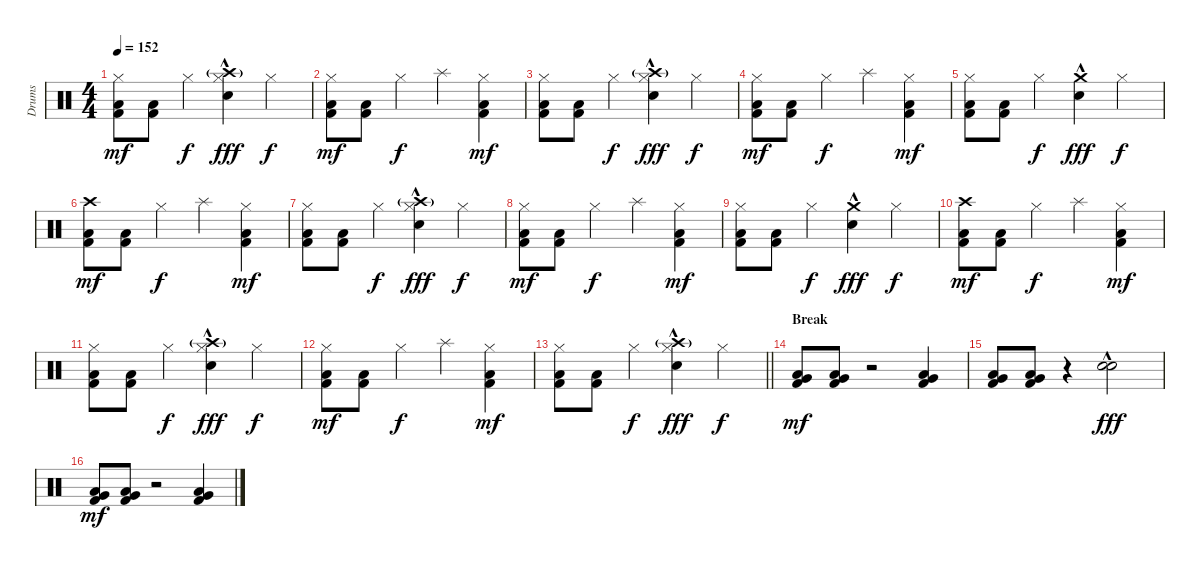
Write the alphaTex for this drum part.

\track ("Drums" "Drums") {instrument percussion}
\staff {score}
\articulation defaults
\ts (4 4)
\tempo 152
\clef neutral
\ks c
("Hi-Hat (closed)" "Low Floor Tom (hit)" "Kick (hit) 2").8{dy mf} ("Low Floor Tom (hit)" "Kick (hit) 2").8 "Hi-Hat (closed)".4{dy f} ("Crash high (hit)"{g} "Hi-Hat (closed)" "Snare (hit) 2"{hac}).4{dy fff} "Hi-Hat (closed)".4{dy f} |
("Hi-Hat (closed)" "Low Floor Tom (hit)" "Kick (hit) 2").8{dy mf} ("Low Floor Tom (hit)" "Kick (hit) 2").8 "Hi-Hat (closed)".4{dy f} "Splash (hit)".4 ("Hi-Hat (closed)" "Low Floor Tom (hit)" "Kick (hit) 2").4{dy mf} |
("Hi-Hat (closed)" "Low Floor Tom (hit)" "Kick (hit) 2").8 ("Low Floor Tom (hit)" "Kick (hit) 2").8 "Hi-Hat (closed)".4{dy f} ("Crash high (hit)"{g} "Hi-Hat (closed)" "Snare (hit) 2"{hac}).4{dy fff} "Hi-Hat (closed)".4{dy f} |
("Hi-Hat (closed)" "Low Floor Tom (hit)" "Kick (hit) 2").8{dy mf} ("Low Floor Tom (hit)" "Kick (hit) 2").8 "Hi-Hat (closed)".4{dy f} "Splash (hit)".4 ("Hi-Hat (closed)" "Low Floor Tom (hit)" "Kick (hit) 2").4{dy mf} |
("Hi-Hat (closed)" "Low Floor Tom (hit)" "Kick (hit) 2").8 ("Low Floor Tom (hit)" "Kick (hit) 2").8 "Hi-Hat (closed)".4{dy f} ("Crash medium (hit)" "Snare (hit) 2"{hac}).4{dy fff} "Hi-Hat (closed)".4{dy f} |
("Crash high (hit)" "Low Floor Tom (hit)" "Kick (hit) 2").8{dy mf} ("Low Floor Tom (hit)" "Kick (hit) 2").8 "Hi-Hat (closed)".4{dy f} "Splash (hit)".4 ("Hi-Hat (closed)" "Low Floor Tom (hit)" "Kick (hit) 2").4{dy mf} |
("Hi-Hat (closed)" "Low Floor Tom (hit)" "Kick (hit) 2").8 ("Low Floor Tom (hit)" "Kick (hit) 2").8 "Hi-Hat (closed)".4{dy f} ("Crash high (hit)"{g} "Hi-Hat (closed)" "Snare (hit) 2"{hac}).4{dy fff} "Hi-Hat (closed)".4{dy f} |
("Hi-Hat (closed)" "Low Floor Tom (hit)" "Kick (hit) 2").8{dy mf} ("Low Floor Tom (hit)" "Kick (hit) 2").8 "Hi-Hat (closed)".4{dy f} "Splash (hit)".4 ("Hi-Hat (closed)" "Low Floor Tom (hit)" "Kick (hit) 2").4{dy mf} |
("Hi-Hat (closed)" "Low Floor Tom (hit)" "Kick (hit) 2").8 ("Low Floor Tom (hit)" "Kick (hit) 2").8 "Hi-Hat (closed)".4{dy f} ("Crash medium (hit)" "Snare (hit) 2"{hac}).4{dy fff} "Hi-Hat (closed)".4{dy f} |
("Crash high (hit)" "Low Floor Tom (hit)" "Kick (hit) 2").8{dy mf} ("Low Floor Tom (hit)" "Kick (hit) 2").8 "Hi-Hat (closed)".4{dy f} "Splash (hit)".4 ("Hi-Hat (closed)" "Low Floor Tom (hit)" "Kick (hit) 2").4{dy mf} |
("Hi-Hat (closed)" "Low Floor Tom (hit)" "Kick (hit) 2").8 ("Low Floor Tom (hit)" "Kick (hit) 2").8 "Hi-Hat (closed)".4{dy f} ("Crash high (hit)"{g} "Hi-Hat (closed)" "Snare (hit) 2"{hac}).4{dy fff} "Hi-Hat (closed)".4{dy f} |
("Hi-Hat (closed)" "Low Floor Tom (hit)" "Kick (hit) 2").8{dy mf} ("Low Floor Tom (hit)" "Kick (hit) 2").8 "Hi-Hat (closed)".4{dy f} "Splash (hit)".4 ("Hi-Hat (closed)" "Low Floor Tom (hit)" "Kick (hit) 2").4{dy mf} |
\barLineRight lightlight
("Hi-Hat (closed)" "Low Floor Tom (hit)" "Kick (hit) 2").8 ("Low Floor Tom (hit)" "Kick (hit) 2").8 "Hi-Hat (closed)".4{dy f} ("Crash high (hit)"{g} "Hi-Hat (closed)" "Snare (hit) 2"{hac}).4{dy fff} "Hi-Hat (closed)".4{dy f} |
\section ("" "Break")
("Very Low Tom (hit)" "Low Floor Tom (hit)" "Kick (hit) 2").8{dy mf} ("Very Low Tom (hit)" "Low Floor Tom (hit)" "Kick (hit) 2").8 r.2 ("Very Low Tom (hit)" "Low Floor Tom (hit)" "Kick (hit) 2").4 |
("Very Low Tom (hit)" "Low Floor Tom (hit)" "Kick (hit) 2").8 ("Very Low Tom (hit)" "Low Floor Tom (hit)" "Kick (hit) 2").8 r.4 ("Electric Snare (hit)"{hac} "Snare (hit) 2"{hac}).2{dy fff} |
("Very Low Tom (hit)" "Low Floor Tom (hit)" "Kick (hit) 2").8{dy mf} ("Very Low Tom (hit)" "Low Floor Tom (hit)" "Kick (hit) 2").8 r.2 ("Very Low Tom (hit)" "Low Floor Tom (hit)" "Kick (hit) 2").4
